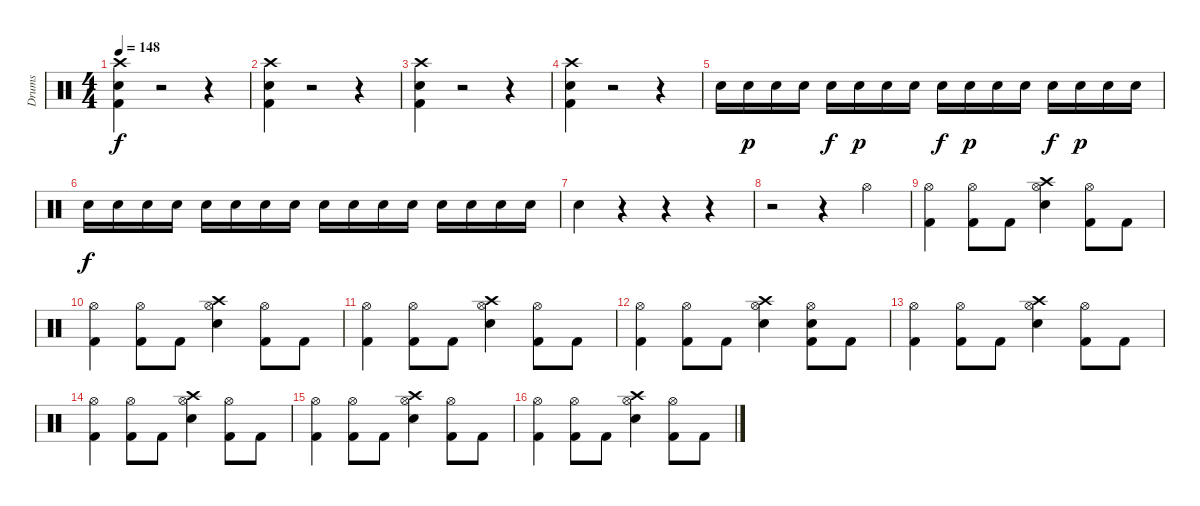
\track ("Drums" "Drums") {instrument percussion}
\staff {score}
\articulation defaults
\ts (4 4)
\tempo 148
\clef neutral
\ks c
("Crash high (hit)" "Kick (hit) 2" "Snare (hit) 2").4{dy f} r.2 r.4 |
("Crash high (hit)" "Kick (hit) 2" "Snare (hit) 2").4 r.2 r.4 |
("Crash high (hit)" "Kick (hit) 2" "Snare (hit) 2").4 r.2 r.4 |
("Crash high (hit)" "Kick (hit) 2" "Snare (hit) 2").4 r.2 r.4 |
"Snare (hit) 2".16 "Snare (hit) 2".16{dy p} "Snare (hit) 2".16 "Snare (hit) 2".16 "Snare (hit) 2".16{dy f} "Snare (hit) 2".16{dy p} "Snare (hit) 2".16 "Snare (hit) 2".16 "Snare (hit) 2".16{dy f} "Snare (hit) 2".16{dy p} "Snare (hit) 2".16 "Snare (hit) 2".16 "Snare (hit) 2".16{dy f} "Snare (hit) 2".16{dy p} "Snare (hit) 2".16 "Snare (hit) 2".16 |
"Snare (hit) 2".16{dy f} "Snare (hit) 2".16 "Snare (hit) 2".16 "Snare (hit) 2".16 "Snare (hit) 2".16 "Snare (hit) 2".16 "Snare (hit) 2".16 "Snare (hit) 2".16 "Snare (hit) 2".16 "Snare (hit) 2".16 "Snare (hit) 2".16 "Snare (hit) 2".16 "Snare (hit) 2".16 "Snare (hit) 2".16 "Snare (hit) 2".16 "Snare (hit) 2".16 |
"Snare (hit) 2".4 r.4 r.4 r.4 |
r.2 r.4 "Hi-Hat (open)".4 |
("Hi-Hat (open)" "Kick (hit) 2").4 ("Hi-Hat (open)" "Kick (hit) 2").8 "Kick (hit) 2".8 ("Crash high (hit)" "Hi-Hat (open)" "Snare (hit) 2").4 ("Hi-Hat (open)" "Kick (hit) 2").8 "Kick (hit) 2".8 |
("Hi-Hat (open)" "Kick (hit) 2").4 ("Hi-Hat (open)" "Kick (hit) 2").8 "Kick (hit) 2".8 ("Crash high (hit)" "Hi-Hat (open)" "Snare (hit) 2").4 ("Hi-Hat (open)" "Kick (hit) 2").8 "Kick (hit) 2".8 |
("Hi-Hat (open)" "Kick (hit) 2").4 ("Hi-Hat (open)" "Kick (hit) 2").8 "Kick (hit) 2".8 ("Crash high (hit)" "Hi-Hat (open)" "Snare (hit) 2").4 ("Hi-Hat (open)" "Kick (hit) 2").8 "Kick (hit) 2".8 |
("Hi-Hat (open)" "Kick (hit) 2").4 ("Hi-Hat (open)" "Kick (hit) 2").8 "Kick (hit) 2".8 ("Crash high (hit)" "Hi-Hat (open)" "Snare (hit) 2").4 ("Hi-Hat (open)" "Snare (hit) 2" "Kick (hit) 2").8 "Kick (hit) 2".8 |
("Hi-Hat (open)" "Kick (hit) 2").4 ("Hi-Hat (open)" "Kick (hit) 2").8 "Kick (hit) 2".8 ("Crash high (hit)" "Hi-Hat (open)" "Snare (hit) 2").4 ("Hi-Hat (open)" "Kick (hit) 2").8 "Kick (hit) 2".8 |
("Hi-Hat (open)" "Kick (hit) 2").4 ("Hi-Hat (open)" "Kick (hit) 2").8 "Kick (hit) 2".8 ("Crash high (hit)" "Hi-Hat (open)" "Snare (hit) 2").4 ("Hi-Hat (open)" "Kick (hit) 2").8 "Kick (hit) 2".8 |
("Hi-Hat (open)" "Kick (hit) 2").4 ("Hi-Hat (open)" "Kick (hit) 2").8 "Kick (hit) 2".8 ("Crash high (hit)" "Hi-Hat (open)" "Snare (hit) 2").4 ("Hi-Hat (open)" "Kick (hit) 2").8 "Kick (hit) 2".8 |
("Hi-Hat (open)" "Kick (hit) 2").4 ("Hi-Hat (open)" "Kick (hit) 2").8 "Kick (hit) 2".8 ("Crash high (hit)" "Hi-Hat (open)" "Snare (hit) 2").4 ("Hi-Hat (open)" "Kick (hit) 2").8 "Kick (hit) 2".8
